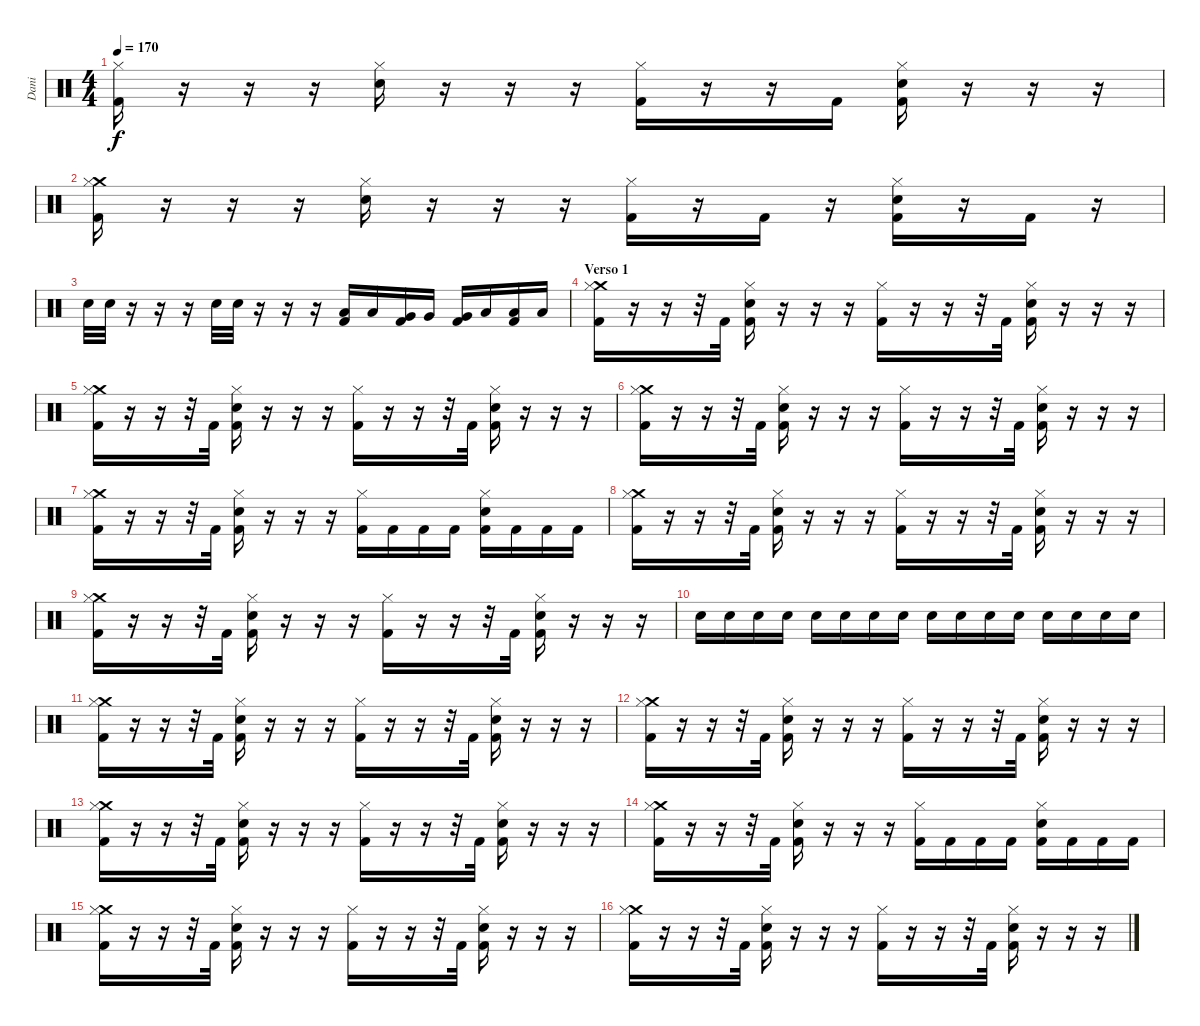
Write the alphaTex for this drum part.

\track ("Dani" "Dani") {instrument percussion}
\staff {score}
\articulation defaults
\ts (4 4)
\tempo 170
\clef neutral
\ks c
("Hi-Hat (closed)" "Kick (hit) 2").16{dy f} r.16 r.16 r.16 ("Hi-Hat (closed)" "Electric Snare (hit)").16 r.16 r.16 r.16 ("Hi-Hat (closed)" "Kick (hit) 2").16 r.16 r.16 "Kick (hit) 2".16 ("Hi-Hat (closed)" "Electric Snare (hit)" "Kick (hit) 2").16 r.16 r.16 r.16 |
("Crash medium (hit)" "Hi-Hat (closed)" "Kick (hit) 2").16 r.16 r.16 r.16 ("Hi-Hat (closed)" "Electric Snare (hit)").16 r.16 r.16 r.16 ("Hi-Hat (closed)" "Kick (hit) 2").16 r.16 "Kick (hit) 2".16 r.16 ("Hi-Hat (closed)" "Electric Snare (hit)" "Kick (hit) 2").16 r.16 "Kick (hit) 2".16 r.16 |
"Electric Snare (hit)".32 "Electric Snare (hit)".32 r.16 r.16 r.16 "Electric Snare (hit)".32 "Electric Snare (hit)".32 r.16 r.16 r.16 ("Low Tom (hit)" "Kick (hit) 2").16 "Low Tom (hit)".16 ("Very Low Tom (hit)" "Kick (hit) 2").16 "Very Low Tom (hit)".16 ("Very Low Tom (hit)" "Kick (hit) 2").16 "Low Floor Tom (hit)".16 ("Low Floor Tom (hit)" "Kick (hit) 2").16 "Low Floor Tom (hit)".16 |
\section ("" "Verso 1")
("Crash medium (hit)" "Hi-Hat (closed)" "Kick (hit) 2").16 r.16 r.16 r.32 "Kick (hit) 2".32 ("Hi-Hat (closed)" "Electric Snare (hit)" "Kick (hit) 2").16 r.16 r.16 r.16 ("Hi-Hat (closed)" "Kick (hit) 2").16 r.16 r.16 r.32 "Kick (hit) 2".32 ("Hi-Hat (closed)" "Electric Snare (hit)" "Kick (hit) 2").16 r.16 r.16 r.16 |
("Crash medium (hit)" "Hi-Hat (closed)" "Kick (hit) 2").16 r.16 r.16 r.32 "Kick (hit) 2".32 ("Hi-Hat (closed)" "Electric Snare (hit)" "Kick (hit) 2").16 r.16 r.16 r.16 ("Hi-Hat (closed)" "Kick (hit) 2").16 r.16 r.16 r.32 "Kick (hit) 2".32 ("Hi-Hat (closed)" "Electric Snare (hit)" "Kick (hit) 2").16 r.16 r.16 r.16 |
("Crash medium (hit)" "Hi-Hat (closed)" "Kick (hit) 2").16 r.16 r.16 r.32 "Kick (hit) 2".32 ("Hi-Hat (closed)" "Electric Snare (hit)" "Kick (hit) 2").16 r.16 r.16 r.16 ("Hi-Hat (closed)" "Kick (hit) 2").16 r.16 r.16 r.32 "Kick (hit) 2".32 ("Hi-Hat (closed)" "Electric Snare (hit)" "Kick (hit) 2").16 r.16 r.16 r.16 |
("Crash medium (hit)" "Hi-Hat (closed)" "Kick (hit) 2").16 r.16 r.16 r.32 "Kick (hit) 2".32 ("Hi-Hat (closed)" "Electric Snare (hit)" "Kick (hit) 2").16 r.16 r.16 r.16 ("Hi-Hat (closed)" "Kick (hit) 2").16 "Kick (hit) 2".16 "Kick (hit) 2".16 "Kick (hit) 2".16 ("Hi-Hat (closed)" "Electric Snare (hit)" "Kick (hit) 2").16 "Kick (hit) 2".16 "Kick (hit) 2".16 "Kick (hit) 2".16 |
("Crash medium (hit)" "Hi-Hat (closed)" "Kick (hit) 2").16 r.16 r.16 r.32 "Kick (hit) 2".32 ("Hi-Hat (closed)" "Electric Snare (hit)" "Kick (hit) 2").16 r.16 r.16 r.16 ("Hi-Hat (closed)" "Kick (hit) 2").16 r.16 r.16 r.32 "Kick (hit) 2".32 ("Hi-Hat (closed)" "Electric Snare (hit)" "Kick (hit) 2").16 r.16 r.16 r.16 |
("Crash medium (hit)" "Hi-Hat (closed)" "Kick (hit) 2").16 r.16 r.16 r.32 "Kick (hit) 2".32 ("Hi-Hat (closed)" "Electric Snare (hit)" "Kick (hit) 2").16 r.16 r.16 r.16 ("Hi-Hat (closed)" "Kick (hit) 2").16 r.16 r.16 r.32 "Kick (hit) 2".32 ("Hi-Hat (closed)" "Electric Snare (hit)" "Kick (hit) 2").16 r.16 r.16 r.16 |
"Electric Snare (hit)".16 "Electric Snare (hit)".16 "Electric Snare (hit)".16 "Electric Snare (hit)".16 "Electric Snare (hit)".16 "Electric Snare (hit)".16 "Electric Snare (hit)".16 "Electric Snare (hit)".16 "Electric Snare (hit)".16 "Electric Snare (hit)".16 "Electric Snare (hit)".16 "Electric Snare (hit)".16 "Electric Snare (hit)".16 "Electric Snare (hit)".16 "Electric Snare (hit)".16 "Electric Snare (hit)".16 |
("Crash medium (hit)" "Hi-Hat (closed)" "Kick (hit) 2").16 r.16 r.16 r.32 "Kick (hit) 2".32 ("Hi-Hat (closed)" "Electric Snare (hit)" "Kick (hit) 2").16 r.16 r.16 r.16 ("Hi-Hat (closed)" "Kick (hit) 2").16 r.16 r.16 r.32 "Kick (hit) 2".32 ("Hi-Hat (closed)" "Electric Snare (hit)" "Kick (hit) 2").16 r.16 r.16 r.16 |
("Crash medium (hit)" "Hi-Hat (closed)" "Kick (hit) 2").16 r.16 r.16 r.32 "Kick (hit) 2".32 ("Hi-Hat (closed)" "Electric Snare (hit)" "Kick (hit) 2").16 r.16 r.16 r.16 ("Hi-Hat (closed)" "Kick (hit) 2").16 r.16 r.16 r.32 "Kick (hit) 2".32 ("Hi-Hat (closed)" "Electric Snare (hit)" "Kick (hit) 2").16 r.16 r.16 r.16 |
("Crash medium (hit)" "Hi-Hat (closed)" "Kick (hit) 2").16 r.16 r.16 r.32 "Kick (hit) 2".32 ("Hi-Hat (closed)" "Electric Snare (hit)" "Kick (hit) 2").16 r.16 r.16 r.16 ("Hi-Hat (closed)" "Kick (hit) 2").16 r.16 r.16 r.32 "Kick (hit) 2".32 ("Hi-Hat (closed)" "Electric Snare (hit)" "Kick (hit) 2").16 r.16 r.16 r.16 |
("Crash medium (hit)" "Hi-Hat (closed)" "Kick (hit) 2").16 r.16 r.16 r.32 "Kick (hit) 2".32 ("Hi-Hat (closed)" "Electric Snare (hit)" "Kick (hit) 2").16 r.16 r.16 r.16 ("Hi-Hat (closed)" "Kick (hit) 2").16 "Kick (hit) 2".16 "Kick (hit) 2".16 "Kick (hit) 2".16 ("Hi-Hat (closed)" "Electric Snare (hit)" "Kick (hit) 2").16 "Kick (hit) 2".16 "Kick (hit) 2".16 "Kick (hit) 2".16 |
("Crash medium (hit)" "Hi-Hat (closed)" "Kick (hit) 2").16 r.16 r.16 r.32 "Kick (hit) 2".32 ("Hi-Hat (closed)" "Electric Snare (hit)" "Kick (hit) 2").16 r.16 r.16 r.16 ("Hi-Hat (closed)" "Kick (hit) 2").16 r.16 r.16 r.32 "Kick (hit) 2".32 ("Hi-Hat (closed)" "Electric Snare (hit)" "Kick (hit) 2").16 r.16 r.16 r.16 |
("Crash medium (hit)" "Hi-Hat (closed)" "Kick (hit) 2").16 r.16 r.16 r.32 "Kick (hit) 2".32 ("Hi-Hat (closed)" "Electric Snare (hit)" "Kick (hit) 2").16 r.16 r.16 r.16 ("Hi-Hat (closed)" "Kick (hit) 2").16 r.16 r.16 r.32 "Kick (hit) 2".32 ("Hi-Hat (closed)" "Electric Snare (hit)" "Kick (hit) 2").16 r.16 r.16 r.16
